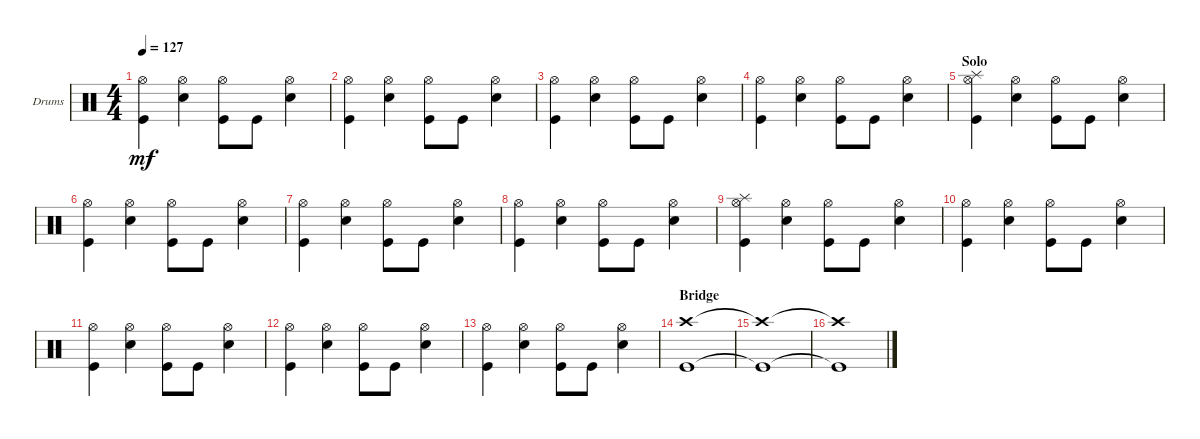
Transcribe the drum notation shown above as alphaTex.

\defaultSystemsLayout 4
\bracketExtendMode groupsimilarinstruments
\firstSystemTrackNameOrientation horizontal
\otherSystemsTrackNameOrientation horizontal
\track ("Drums 2" "Drums") {instrument percussion}
\staff {score}
\articulation defaults
\ts (4 4)
\tempo 127
\clef neutral
\ks c
("Kick (hit)" "Hi-Hat (open)").4{dy mf} ("Hi-Hat (open)" "Snare (hit) 2").4 ("Hi-Hat (open)" "Kick (hit)").8 "Kick (hit)".8 ("Hi-Hat (open)" "Snare (hit) 2").4 |
("Kick (hit)" "Hi-Hat (open)").4 ("Hi-Hat (open)" "Snare (hit) 2").4 ("Hi-Hat (open)" "Kick (hit)").8 "Kick (hit)".8 ("Hi-Hat (open)" "Snare (hit) 2").4 |
("Kick (hit)" "Hi-Hat (open)").4 ("Hi-Hat (open)" "Snare (hit) 2").4 ("Hi-Hat (open)" "Kick (hit)").8 "Kick (hit)".8 ("Hi-Hat (open)" "Snare (hit) 2").4 |
("Kick (hit)" "Hi-Hat (open)").4 ("Hi-Hat (open)" "Snare (hit) 2").4 ("Hi-Hat (open)" "Kick (hit)").8 "Kick (hit)".8 ("Hi-Hat (open)" "Snare (hit) 2").4 |
\section ("" "Solo")
("Kick (hit)" "Hi-Hat (open)" "Splash (hit)").4 ("Hi-Hat (open)" "Snare (hit) 2").4 ("Hi-Hat (open)" "Kick (hit)").8 "Kick (hit)".8 ("Hi-Hat (open)" "Snare (hit) 2").4 |
("Kick (hit)" "Hi-Hat (open)").4 ("Hi-Hat (open)" "Snare (hit) 2").4 ("Hi-Hat (open)" "Kick (hit)").8 "Kick (hit)".8 ("Hi-Hat (open)" "Snare (hit) 2").4 |
("Kick (hit)" "Hi-Hat (open)").4 ("Hi-Hat (open)" "Snare (hit) 2").4 ("Hi-Hat (open)" "Kick (hit)").8 "Kick (hit)".8 ("Hi-Hat (open)" "Snare (hit) 2").4 |
("Kick (hit)" "Hi-Hat (open)").4 ("Hi-Hat (open)" "Snare (hit) 2").4 ("Hi-Hat (open)" "Kick (hit)").8 "Kick (hit)".8 ("Hi-Hat (open)" "Snare (hit) 2").4 |
("Kick (hit)" "Hi-Hat (open)" "Splash (hit)").4 ("Hi-Hat (open)" "Snare (hit) 2").4 ("Hi-Hat (open)" "Kick (hit)").8 "Kick (hit)".8 ("Hi-Hat (open)" "Snare (hit) 2").4 |
("Kick (hit)" "Hi-Hat (open)").4 ("Hi-Hat (open)" "Snare (hit) 2").4 ("Hi-Hat (open)" "Kick (hit)").8 "Kick (hit)".8 ("Hi-Hat (open)" "Snare (hit) 2").4 |
("Kick (hit)" "Hi-Hat (open)").4 ("Hi-Hat (open)" "Snare (hit) 2").4 ("Hi-Hat (open)" "Kick (hit)").8 "Kick (hit)".8 ("Hi-Hat (open)" "Snare (hit) 2").4 |
("Kick (hit)" "Hi-Hat (open)").4 ("Hi-Hat (open)" "Snare (hit) 2").4 ("Hi-Hat (open)" "Kick (hit)").8 "Kick (hit)".8 ("Hi-Hat (open)" "Snare (hit) 2").4 |
("Kick (hit)" "Hi-Hat (open)").4 ("Hi-Hat (open)" "Snare (hit) 2").4 ("Hi-Hat (open)" "Kick (hit)").8 "Kick (hit)".8 ("Hi-Hat (open)" "Snare (hit) 2").4 |
\section ("" "Bridge")
("Kick (hit)" "Crash high (hit)").1 |
("Kick (hit)"{t} "Crash high (hit)"{t}).1 |
("Kick (hit)"{t} "Crash high (hit)"{t}).1
